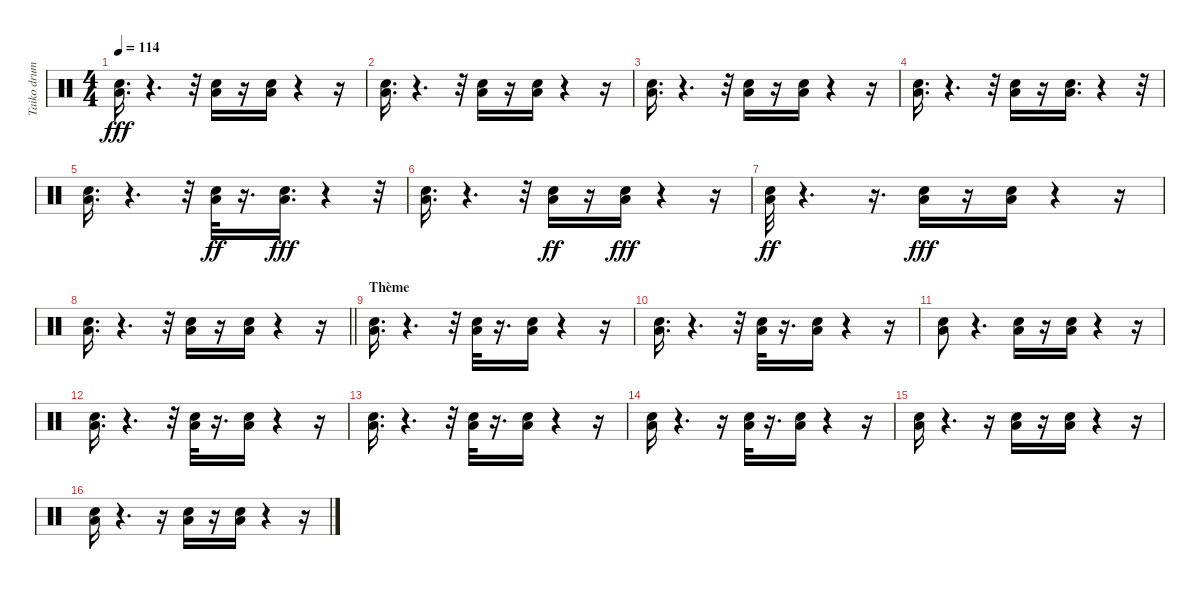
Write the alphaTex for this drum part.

\track ("Taiko drum" "Taiko drum") {instrument percussion}
\staff {score}
\articulation defaults
\ts (4 4)
\tempo 114
\clef neutral
\ks c
("Low Floor Tom (hit)" "Electric Snare (hit)").16{d dy fff} r.4{d} r.32 ("Low Floor Tom (hit)" "Electric Snare (hit)").16 r.16 ("Low Floor Tom (hit)" "Electric Snare (hit)").16 r.4 r.16 |
("Low Floor Tom (hit)" "Electric Snare (hit)").16{d} r.4{d} r.32 ("Low Floor Tom (hit)" "Electric Snare (hit)").16 r.16 ("Low Floor Tom (hit)" "Electric Snare (hit)").16 r.4 r.16 |
("Low Floor Tom (hit)" "Electric Snare (hit)").16{d} r.4{d} r.32 ("Low Floor Tom (hit)" "Electric Snare (hit)").16 r.16 ("Low Floor Tom (hit)" "Electric Snare (hit)").16 r.4 r.16 |
("Low Floor Tom (hit)" "Electric Snare (hit)").16{d} r.4{d} r.32 ("Low Floor Tom (hit)" "Electric Snare (hit)").16 r.16 ("Low Floor Tom (hit)" "Electric Snare (hit)").16{d} r.4 r.32 |
("Low Floor Tom (hit)" "Electric Snare (hit)").16{d} r.4{d} r.32 ("Electric Snare (hit)" "Low Floor Tom (hit)").32{dy ff} r.16{d} ("Low Floor Tom (hit)" "Electric Snare (hit)").16{d dy fff} r.4 r.32 |
("Electric Snare (hit)" "Low Floor Tom (hit)").16{d} r.4{d} r.32 ("Electric Snare (hit)" "Low Floor Tom (hit)").16{dy ff} r.16 ("Electric Snare (hit)" "Low Floor Tom (hit)").16{dy fff} r.4 r.16 |
("Electric Snare (hit)" "Low Floor Tom (hit)").32{dy ff} r.4{d} r.16{d} ("Low Floor Tom (hit)" "Electric Snare (hit)").16{dy fff} r.16 ("Low Floor Tom (hit)" "Electric Snare (hit)").16 r.4 r.16 |
\barLineRight lightlight
("Low Floor Tom (hit)" "Electric Snare (hit)").16{d} r.4{d} r.32 ("Low Floor Tom (hit)" "Electric Snare (hit)").16 r.16 ("Low Floor Tom (hit)" "Electric Snare (hit)").16 r.4 r.16 |
\section ("" "Thème")
("Low Floor Tom (hit)" "Electric Snare (hit)").16{d} r.4{d} r.32 ("Electric Snare (hit)" "Low Floor Tom (hit)").32 r.16{d} ("Low Floor Tom (hit)" "Electric Snare (hit)").16 r.4 r.16 |
("Low Floor Tom (hit)" "Electric Snare (hit)").16{d} r.4{d} r.32 ("Low Floor Tom (hit)" "Electric Snare (hit)").32 r.16{d} ("Low Floor Tom (hit)" "Electric Snare (hit)").16 r.4 r.16 |
("Low Floor Tom (hit)" "Electric Snare (hit)").8 r.4{d} ("Low Floor Tom (hit)" "Electric Snare (hit)").16 r.16 ("Low Floor Tom (hit)" "Electric Snare (hit)").16 r.4 r.16 |
("Low Floor Tom (hit)" "Electric Snare (hit)").16{d} r.4{d} r.32 ("Low Floor Tom (hit)" "Electric Snare (hit)").32 r.16{d} ("Low Floor Tom (hit)" "Electric Snare (hit)").16 r.4 r.16 |
("Low Floor Tom (hit)" "Electric Snare (hit)").16{d} r.4{d} r.32 ("Low Floor Tom (hit)" "Electric Snare (hit)").32 r.16{d} ("Low Floor Tom (hit)" "Electric Snare (hit)").16 r.4 r.16 |
("Electric Snare (hit)" "Low Floor Tom (hit)").16 r.4{d} r.16 ("Low Floor Tom (hit)" "Electric Snare (hit)").32 r.16{d} ("Low Floor Tom (hit)" "Electric Snare (hit)").16 r.4 r.16 |
("Low Floor Tom (hit)" "Electric Snare (hit)").16 r.4{d} r.16 ("Low Floor Tom (hit)" "Electric Snare (hit)").16 r.16 ("Low Floor Tom (hit)" "Electric Snare (hit)").16 r.4 r.16 |
("Low Floor Tom (hit)" "Electric Snare (hit)").16 r.4{d} r.16 ("Low Floor Tom (hit)" "Electric Snare (hit)").16 r.16 ("Low Floor Tom (hit)" "Electric Snare (hit)").16 r.4 r.16
